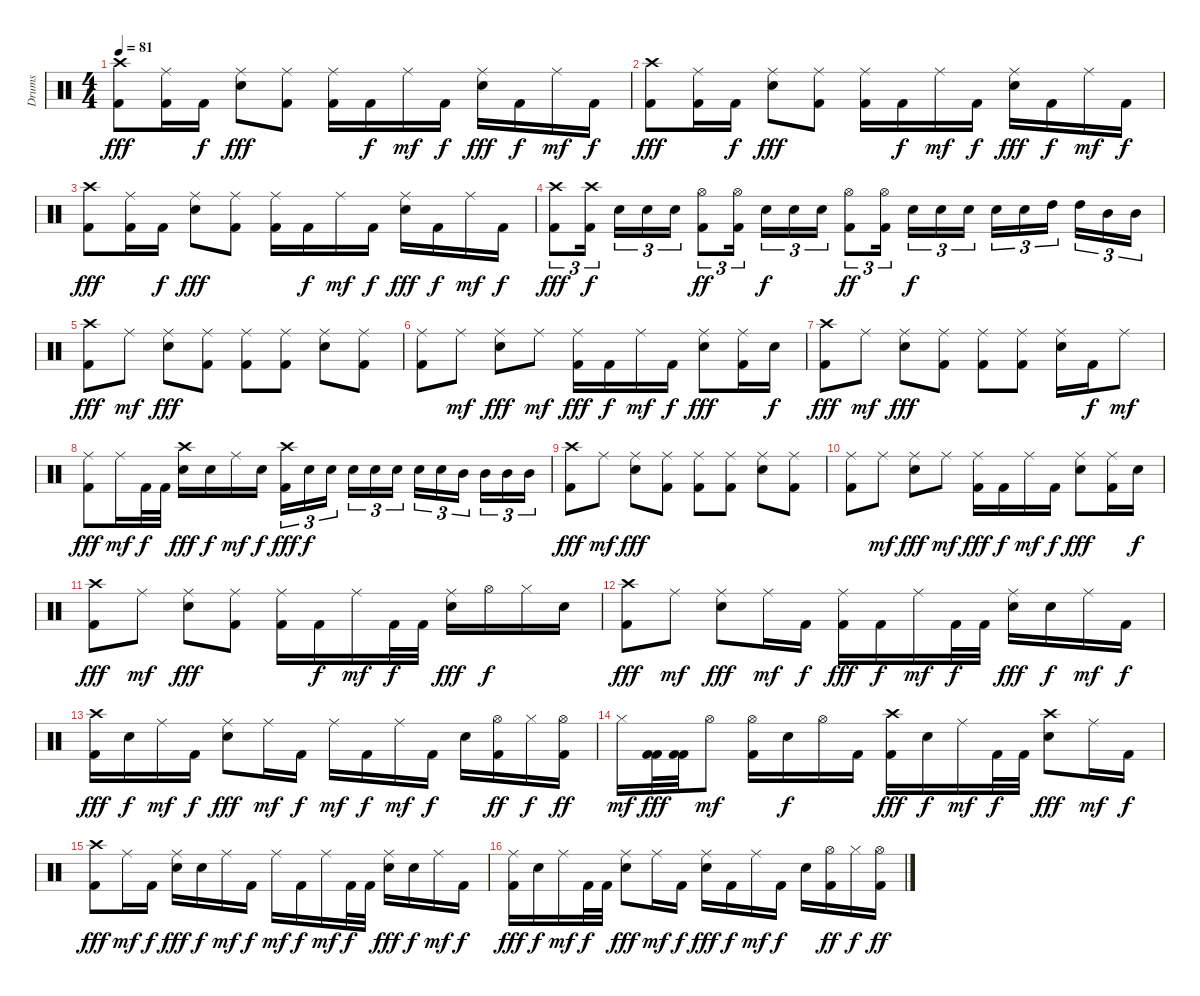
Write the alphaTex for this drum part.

\track ("Drums" "Drums") {instrument percussion}
\staff {score}
\articulation defaults
\ts (4 4)
\tempo 81
\clef neutral
\ks c
("Crash high (hit)" "Kick (hit) 2").8{dy fff} ("Ride (middle)" "Kick (hit) 2").16 "Kick (hit) 2".16{dy f} ("Ride (middle)" "Electric Snare (hit)").8{dy fff} ("Ride (middle)" "Kick (hit) 2").8 ("Ride (middle)" "Kick (hit) 2").16 "Kick (hit) 2".16{dy f} "Ride (middle)".16{dy mf} "Kick (hit) 2".16{dy f} ("Ride (middle)" "Electric Snare (hit)").16{dy fff} "Kick (hit) 2".16{dy f} "Ride (middle)".16{dy mf} "Kick (hit) 2".16{dy f} |
("Crash high (hit)" "Kick (hit) 2").8{dy fff} ("Ride (middle)" "Kick (hit) 2").16 "Kick (hit) 2".16{dy f} ("Ride (middle)" "Electric Snare (hit)").8{dy fff} ("Ride (middle)" "Kick (hit) 2").8 ("Ride (middle)" "Kick (hit) 2").16 "Kick (hit) 2".16{dy f} "Ride (middle)".16{dy mf} "Kick (hit) 2".16{dy f} ("Ride (middle)" "Electric Snare (hit)").16{dy fff} "Kick (hit) 2".16{dy f} "Ride (middle)".16{dy mf} "Kick (hit) 2".16{dy f} |
("Crash high (hit)" "Kick (hit) 2").8{dy fff} ("Ride (middle)" "Kick (hit) 2").16 "Kick (hit) 2".16{dy f} ("Ride (middle)" "Electric Snare (hit)").8{dy fff} ("Ride (middle)" "Kick (hit) 2").8 ("Ride (middle)" "Kick (hit) 2").16 "Kick (hit) 2".16{dy f} "Ride (middle)".16{dy mf} "Kick (hit) 2".16{dy f} ("Ride (middle)" "Electric Snare (hit)").16{dy fff} "Kick (hit) 2".16{dy f} "Ride (middle)".16{dy mf} "Kick (hit) 2".16{dy f} |
("Crash high (hit)" "Kick (hit) 2").8{tu (3 2) dy fff} ("Crash high (hit)" "Kick (hit) 2").16{tu (3 2) dy f} "Electric Snare (hit)".16{tu (3 2)} "Electric Snare (hit)".16{tu (3 2)} "Electric Snare (hit)".16{tu (3 2)} ("Hi-Hat (open)" "Kick (hit) 2").8{tu (3 2) dy ff} ("Hi-Hat (open)" "Kick (hit) 2").16{tu (3 2)} "Electric Snare (hit)".16{tu (3 2) dy f} "Electric Snare (hit)".16{tu (3 2)} "Electric Snare (hit)".16{tu (3 2)} ("Hi-Hat (open)" "Kick (hit) 2").8{tu (3 2) dy ff} ("Hi-Hat (open)" "Kick (hit) 2").16{tu (3 2)} "Electric Snare (hit)".16{tu (3 2) dy f} "Electric Snare (hit)".16{tu (3 2)} "Electric Snare (hit)".16{tu (3 2)} "Electric Snare (hit)".16{tu (3 2)} "Electric Snare (hit)".16{tu (3 2)} "High Tom (hit)".16{tu (3 2)} "High Tom (hit)".16{tu (3 2)} "Mid Tom (hit)".16{tu (3 2)} "Mid Tom (hit)".16{tu (3 2)} |
("Crash high (hit)" "Kick (hit) 2").8{dy fff} "Ride (middle)".8{dy mf} ("Ride (middle)" "Electric Snare (hit)").8{dy fff} ("Ride (middle)" "Kick (hit) 2").8 ("Ride (middle)" "Kick (hit) 2").8 ("Ride (middle)" "Kick (hit) 2").8 ("Ride (middle)" "Electric Snare (hit)").8 ("Ride (middle)" "Kick (hit) 2").8 |
("Ride (middle)" "Kick (hit) 2").8 "Ride (middle)".8{dy mf} ("Ride (middle)" "Electric Snare (hit)").8{dy fff} "Ride (middle)".8{dy mf} ("Ride (middle)" "Kick (hit) 2").16{dy fff} "Kick (hit) 2".16{dy f} "Ride (middle)".16{dy mf} "Kick (hit) 2".16{dy f} ("Ride (middle)" "Electric Snare (hit)").8{dy fff} ("Ride (middle)" "Kick (hit) 2").16 "Electric Snare (hit)".16{dy f} |
("Crash high (hit)" "Kick (hit) 2").8{dy fff} "Ride (middle)".8{dy mf} ("Ride (middle)" "Electric Snare (hit)").8{dy fff} ("Ride (middle)" "Kick (hit) 2").8 ("Ride (middle)" "Kick (hit) 2").8 ("Ride (middle)" "Kick (hit) 2").8 ("Ride (middle)" "Electric Snare (hit)").16 "Kick (hit) 2".16{dy f} "Ride (middle)".8{dy mf} |
("Ride (middle)" "Kick (hit) 2").8{dy fff} "Ride (middle)".16{dy mf} "Kick (hit) 2".32{dy f} "Kick (hit) 2".32 ("Crash high (hit)" "Electric Snare (hit)").16{dy fff} "Electric Snare (hit)".16{dy f} "Ride (middle)".16{dy mf} "Electric Snare (hit)".16{dy f} ("Crash high (hit)" "Kick (hit) 2").16{tu (3 2) dy fff} "Electric Snare (hit)".16{tu (3 2) dy f} "Electric Snare (hit)".16{tu (3 2)} "Electric Snare (hit)".16{tu (3 2)} "Electric Snare (hit)".16{tu (3 2)} "Electric Snare (hit)".16{tu (3 2)} "Electric Snare (hit)".16{tu (3 2)} "Electric Snare (hit)".16{tu (3 2)} "Mid Tom (hit)".16{tu (3 2)} "Mid Tom (hit)".16{tu (3 2)} "Mid Tom (hit)".16{tu (3 2)} "Mid Tom (hit)".16{tu (3 2)} |
("Crash high (hit)" "Kick (hit) 2").8{dy fff} "Ride (middle)".8{dy mf} ("Ride (middle)" "Electric Snare (hit)").8{dy fff} ("Ride (middle)" "Kick (hit) 2").8 ("Ride (middle)" "Kick (hit) 2").8 ("Ride (middle)" "Kick (hit) 2").8 ("Ride (middle)" "Electric Snare (hit)").8 ("Ride (middle)" "Kick (hit) 2").8 |
("Ride (middle)" "Kick (hit) 2").8 "Ride (middle)".8{dy mf} ("Ride (middle)" "Electric Snare (hit)").8{dy fff} "Ride (middle)".8{dy mf} ("Ride (middle)" "Kick (hit) 2").16{dy fff} "Kick (hit) 2".16{dy f} "Ride (middle)".16{dy mf} "Kick (hit) 2".16{dy f} ("Ride (middle)" "Electric Snare (hit)").8{dy fff} ("Ride (middle)" "Kick (hit) 2").16 "Electric Snare (hit)".16{dy f} |
("Crash high (hit)" "Kick (hit) 2").8{dy fff} "Ride (middle)".8{dy mf} ("Ride (middle)" "Electric Snare (hit)").8{dy fff} ("Ride (middle)" "Kick (hit) 2").8 ("Ride (middle)" "Kick (hit) 2").16 "Kick (hit) 2".16{dy f} "Ride (middle)".16{dy mf} "Kick (hit) 2".32{dy f} "Kick (hit) 2".32 ("Ride (middle)" "Electric Snare (hit)").16{dy fff} "Hi-Hat (open)".16{dy f} "Hi-Hat (closed)".16 "Electric Snare (hit)".16 |
("Crash high (hit)" "Kick (hit) 2").8{dy fff} "Ride (middle)".8{dy mf} ("Ride (middle)" "Electric Snare (hit)").8{dy fff} "Ride (middle)".16{dy mf} "Kick (hit) 2".16{dy f} ("Ride (middle)" "Kick (hit) 2").16{dy fff} "Kick (hit) 2".16{dy f} "Ride (middle)".16{dy mf} "Kick (hit) 2".32{dy f} "Kick (hit) 2".32 ("Ride (middle)" "Electric Snare (hit)").16{dy fff} "Electric Snare (hit)".16{dy f} "Ride (middle)".16{dy mf} "Kick (hit) 2".16{dy f} |
("Crash high (hit)" "Kick (hit) 2").16{dy fff} "Electric Snare (hit)".16{dy f} "Ride (middle)".16{dy mf} "Kick (hit) 2".16{dy f} ("Ride (middle)" "Electric Snare (hit)").8{dy fff} "Ride (middle)".16{dy mf} "Kick (hit) 2".16{dy f} "Ride (middle)".16{dy mf} "Kick (hit) 2".16{dy f} "Ride (middle)".16{dy mf} "Kick (hit) 2".16{dy f} "Electric Snare (hit)".16 ("Hi-Hat (open)" "Kick (hit) 2").16{dy ff} "Hi-Hat (closed)".16{dy f} ("Hi-Hat (open)" "Kick (hit) 2").16{dy ff} |
"Hi-Hat (closed)".16{dy mf} ("Kick (hit) 2" "Kick (hit) 2").32{dy fff} ("Kick (hit) 2" "Kick (hit) 2").32 "Hi-Hat (open)".8{dy mf} ("Hi-Hat (open)" "Kick (hit) 2").16 "Electric Snare (hit)".16{dy f} "Hi-Hat (open)".16 "Kick (hit) 2".16 ("Crash high (hit)" "Kick (hit) 2").16{dy fff} "Electric Snare (hit)".16{dy f} "Ride (middle)".16{dy mf} "Kick (hit) 2".32{dy f} "Kick (hit) 2".32 ("Crash high (hit)" "Electric Snare (hit)").8{dy fff} "Ride (middle)".16{dy mf} "Kick (hit) 2".16{dy f} |
("Crash high (hit)" "Kick (hit) 2").8{dy fff} "Ride (middle)".16{dy mf} "Kick (hit) 2".16{dy f} ("Ride (middle)" "Electric Snare (hit)").16{dy fff} "Electric Snare (hit)".16{dy f} "Ride (middle)".16{dy mf} "Kick (hit) 2".16{dy f} "Ride (middle)".16{dy mf} "Kick (hit) 2".16{dy f} "Ride (middle)".16{dy mf} "Kick (hit) 2".32{dy f} "Kick (hit) 2".32 ("Ride (middle)" "Electric Snare (hit)").16{dy fff} "Electric Snare (hit)".16{dy f} "Ride (middle)".16{dy mf} "Kick (hit) 2".16{dy f} |
("Ride (middle)" "Kick (hit) 2").16{dy fff} "Electric Snare (hit)".16{dy f} "Ride (middle)".16{dy mf} "Kick (hit) 2".32{dy f} "Kick (hit) 2".32 ("Ride (middle)" "Electric Snare (hit)").8{dy fff} "Ride (middle)".16{dy mf} "Kick (hit) 2".16{dy f} ("Ride (middle)" "Electric Snare (hit)").16{dy fff} "Kick (hit) 2".16{dy f} "Ride (middle)".16{dy mf} "Kick (hit) 2".16{dy f} "Electric Snare (hit)".16 ("Hi-Hat (open)" "Kick (hit) 2").16{dy ff} "Hi-Hat (closed)".16{dy f} ("Hi-Hat (open)" "Kick (hit) 2").16{dy ff}
